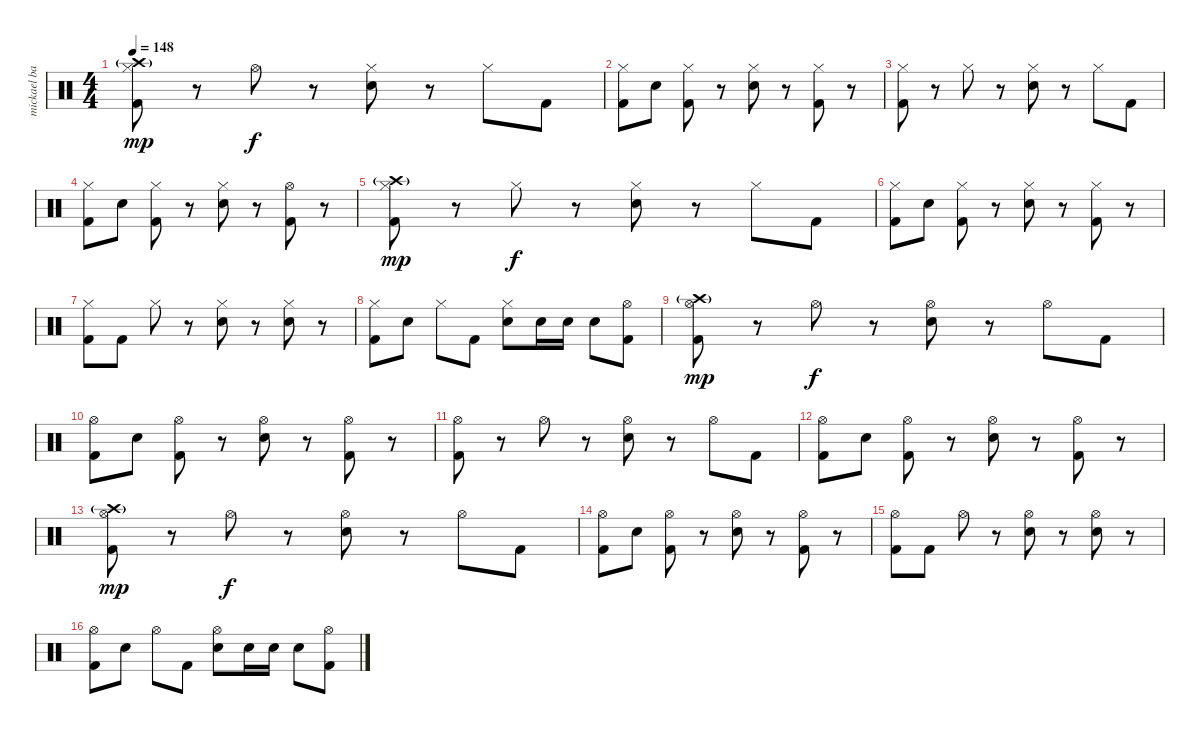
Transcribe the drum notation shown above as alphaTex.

\track ("mickael barker drums" "mickael ba") {instrument percussion}
\staff {score}
\articulation defaults
\ts (4 4)
\tempo 148
\clef neutral
\ks c
("Crash high (hit)"{g} "Hi-Hat (closed)" "Kick (hit) 2").8{dy mp} r.8 "Hi-Hat (open)".8{dy f} r.8 ("Hi-Hat (closed)" "Snare (hit) 2").8 r.8 "Hi-Hat (closed)".8 "Kick (hit) 2".8 |
("Hi-Hat (closed)" "Kick (hit) 2").8 "Snare (hit) 2".8 ("Hi-Hat (closed)" "Kick (hit) 2").8 r.8 ("Hi-Hat (closed)" "Snare (hit) 2").8 r.8 ("Hi-Hat (closed)" "Kick (hit) 2").8 r.8 |
("Hi-Hat (closed)" "Kick (hit) 2").8 r.8 "Hi-Hat (closed)".8 r.8 ("Hi-Hat (closed)" "Snare (hit) 2").8 r.8 "Hi-Hat (closed)".8 "Kick (hit) 2".8 |
("Hi-Hat (closed)" "Kick (hit) 2").8 "Snare (hit) 2".8 ("Hi-Hat (closed)" "Kick (hit) 2").8 r.8 ("Hi-Hat (closed)" "Snare (hit) 2").8 r.8 ("Hi-Hat (open)" "Kick (hit) 2").8 r.8 |
("Crash high (hit)"{g} "Hi-Hat (closed)" "Kick (hit) 2").8{dy mp} r.8 "Hi-Hat (closed)".8{dy f} r.8 ("Hi-Hat (closed)" "Snare (hit) 2").8 r.8 "Hi-Hat (closed)".8 "Kick (hit) 2".8 |
("Hi-Hat (closed)" "Kick (hit) 2").8 "Snare (hit) 2".8 ("Hi-Hat (closed)" "Kick (hit) 2").8 r.8 ("Hi-Hat (closed)" "Snare (hit) 2").8 r.8 ("Hi-Hat (closed)" "Kick (hit) 2").8 r.8 |
("Hi-Hat (closed)" "Kick (hit) 2").8 "Kick (hit) 2".8 "Hi-Hat (closed)".8 r.8 ("Hi-Hat (closed)" "Snare (hit) 2").8 r.8 ("Hi-Hat (closed)" "Snare (hit) 2").8 r.8 |
("Hi-Hat (closed)" "Kick (hit) 2").8 "Snare (hit) 2".8 "Hi-Hat (closed)".8 "Kick (hit) 2".8 ("Hi-Hat (closed)" "Snare (hit) 2").8 "Snare (hit) 2".16 "Snare (hit) 2".16 "Snare (hit) 2".8 ("Hi-Hat (open)" "Kick (hit) 2").8 |
("Crash high (hit)"{g} "Hi-Hat (open)" "Kick (hit) 2").8{dy mp} r.8 "Hi-Hat (open)".8{dy f} r.8 ("Hi-Hat (open)" "Snare (hit) 2").8 r.8 "Hi-Hat (open)".8 "Kick (hit) 2".8 |
("Hi-Hat (open)" "Kick (hit) 2").8 "Snare (hit) 2".8 ("Hi-Hat (open)" "Kick (hit) 2").8 r.8 ("Hi-Hat (open)" "Snare (hit) 2").8 r.8 ("Hi-Hat (open)" "Kick (hit) 2").8 r.8 |
("Hi-Hat (open)" "Kick (hit) 2").8 r.8 "Hi-Hat (open)".8 r.8 ("Hi-Hat (open)" "Snare (hit) 2").8 r.8 "Hi-Hat (open)".8 "Kick (hit) 2".8 |
("Hi-Hat (open)" "Kick (hit) 2").8 "Snare (hit) 2".8 ("Hi-Hat (open)" "Kick (hit) 2").8 r.8 ("Hi-Hat (open)" "Snare (hit) 2").8 r.8 ("Hi-Hat (open)" "Kick (hit) 2").8 r.8 |
("Crash high (hit)"{g} "Hi-Hat (open)" "Kick (hit) 2").8{dy mp} r.8 "Hi-Hat (open)".8{dy f} r.8 ("Hi-Hat (open)" "Snare (hit) 2").8 r.8 "Hi-Hat (open)".8 "Kick (hit) 2".8 |
("Hi-Hat (open)" "Kick (hit) 2").8 "Snare (hit) 2".8 ("Hi-Hat (open)" "Kick (hit) 2").8 r.8 ("Hi-Hat (open)" "Snare (hit) 2").8 r.8 ("Hi-Hat (open)" "Kick (hit) 2").8 r.8 |
("Hi-Hat (open)" "Kick (hit) 2").8 "Kick (hit) 2".8 "Hi-Hat (open)".8 r.8 ("Hi-Hat (open)" "Snare (hit) 2").8 r.8 ("Hi-Hat (open)" "Snare (hit) 2").8 r.8 |
("Hi-Hat (open)" "Kick (hit) 2").8 "Snare (hit) 2".8 "Hi-Hat (open)".8 "Kick (hit) 2".8 ("Hi-Hat (open)" "Snare (hit) 2").8 "Snare (hit) 2".16 "Snare (hit) 2".16 "Snare (hit) 2".8 ("Hi-Hat (open)" "Kick (hit) 2").8
